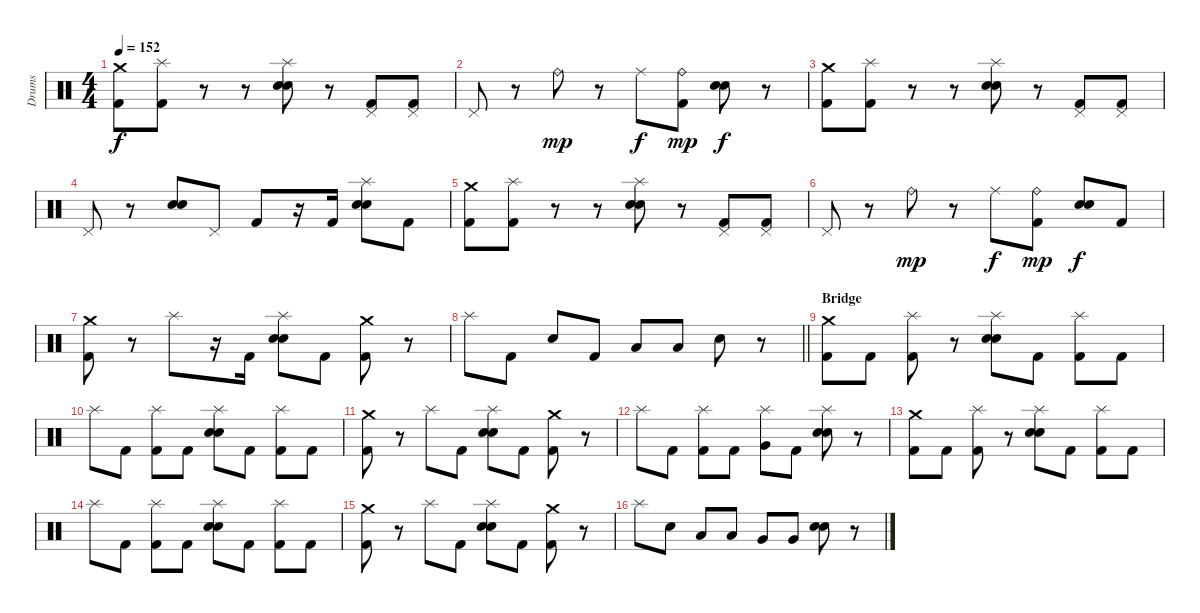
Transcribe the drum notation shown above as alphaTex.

\track ("Drums" "Drums") {instrument percussion}
\staff {score}
\articulation defaults
\ts (4 4)
\tempo 152
\clef neutral
\ks c
("Crash medium (hit)" "Kick (hit) 2").8{dy f} ("Splash (hit)" "Kick (hit) 2").8 r.8 r.8 ("Splash (hit)" "Electric Snare (hit)" "Snare (hit) 2").8 r.8 ("Pedal Hi-Hat (hit)" "Kick (hit) 2").8 ("Pedal Hi-Hat (hit)" "Kick (hit) 2").8 |
"Pedal Hi-Hat (hit)".8 r.8 "Ride (bell)".8{dy mp} r.8 "Ride (middle)".8{dy f} ("Ride (bell)" "Kick (hit) 2").8{dy mp} ("Electric Snare (hit)" "Snare (hit) 2").8{dy f} r.8 |
("Crash medium (hit)" "Kick (hit) 2").8 ("Splash (hit)" "Kick (hit) 2").8 r.8 r.8 ("Splash (hit)" "Electric Snare (hit)" "Snare (hit) 2").8 r.8 ("Pedal Hi-Hat (hit)" "Kick (hit) 2").8 ("Pedal Hi-Hat (hit)" "Kick (hit) 2").8 |
"Pedal Hi-Hat (hit)".8 r.8 ("Electric Snare (hit)" "Snare (hit) 2").8 "Pedal Hi-Hat (hit)".8 "Kick (hit) 2".8 r.16 "Kick (hit) 2".16 ("Splash (hit)" "Electric Snare (hit)" "Snare (hit) 2").8 "Kick (hit) 2".8 |
("Crash medium (hit)" "Kick (hit) 2").8 ("Splash (hit)" "Kick (hit) 2").8 r.8 r.8 ("Splash (hit)" "Electric Snare (hit)" "Snare (hit) 2").8 r.8 ("Pedal Hi-Hat (hit)" "Kick (hit) 2").8 ("Pedal Hi-Hat (hit)" "Kick (hit) 2").8 |
"Pedal Hi-Hat (hit)".8 r.8 "Ride (bell)".8{dy mp} r.8 "Ride (middle)".8{dy f} ("Ride (bell)" "Kick (hit) 2").8{dy mp} ("Electric Snare (hit)" "Snare (hit) 2").8{dy f} "Kick (hit) 2".8 |
("Crash medium (hit)" "Kick (hit) 2").8 r.8 "Splash (hit)".8 r.16 "Kick (hit) 2".16 ("Splash (hit)" "Electric Snare (hit)" "Snare (hit) 2").8 "Kick (hit) 2".8 ("Crash medium (hit)" "Kick (hit) 2").8 r.8 |
\barLineRight lightlight "Splash (hit)".8 "Kick (hit) 2".8 "Electric Snare (hit)".8 "Kick (hit) 2".8 "Low Tom (hit)".8 "Low Tom (hit)".8 "Electric Snare (hit)".8
r.8 |
\section ("" "Bridge")
("Crash medium (hit)" "Kick (hit) 2").8 "Kick (hit) 2".8 ("Splash (hit)" "Kick (hit) 2").8 r.8 ("Splash (hit)" "Electric Snare (hit)" "Snare (hit) 2").8 "Kick (hit) 2".8 ("Splash (hit)" "Kick (hit) 2").8 "Kick (hit) 2".8 |
"Splash (hit)".8 "Kick (hit) 2".8 ("Splash (hit)" "Kick (hit) 2").8 "Kick (hit) 2".8 ("Splash (hit)" "Electric Snare (hit)" "Snare (hit) 2").8 "Kick (hit) 2".8 ("Splash (hit)" "Kick (hit) 2").8 "Kick (hit) 2".8 |
("Crash medium (hit)" "Kick (hit) 2").8 r.8 "Splash (hit)".8 "Kick (hit) 2".8 ("Splash (hit)" "Electric Snare (hit)" "Snare (hit) 2").8 "Kick (hit) 2".8 ("Crash medium (hit)" "Kick (hit) 2").8 r.8 |
"Splash (hit)".8 "Kick (hit) 2".8 ("Splash (hit)" "Kick (hit) 2").8 "Kick (hit) 2".8 ("Splash (hit)" "Very Low Tom (hit)").8 "Kick (hit) 2".8 ("Splash (hit)" "Electric Snare (hit)" "Snare (hit) 2").8 r.8 |
("Crash medium (hit)" "Kick (hit) 2").8 "Kick (hit) 2".8 ("Splash (hit)" "Kick (hit) 2").8 r.8 ("Splash (hit)" "Electric Snare (hit)" "Snare (hit) 2").8 "Kick (hit) 2".8 ("Splash (hit)" "Kick (hit) 2").8 "Kick (hit) 2".8 |
"Splash (hit)".8 "Kick (hit) 2".8 ("Splash (hit)" "Kick (hit) 2").8 "Kick (hit) 2".8 ("Splash (hit)" "Electric Snare (hit)" "Snare (hit) 2").8 "Kick (hit) 2".8 ("Splash (hit)" "Kick (hit) 2").8 "Kick (hit) 2".8 |
("Crash medium (hit)" "Kick (hit) 2").8 r.8 "Splash (hit)".8 "Kick (hit) 2".8 ("Splash (hit)" "Electric Snare (hit)" "Snare (hit) 2").8 "Kick (hit) 2".8 ("Crash medium (hit)" "Kick (hit) 2").8 r.8 |
"Splash (hit)".8 "Electric Snare (hit)".8 "Low Tom (hit)".8 "Low Tom (hit)".8 "Very Low Tom (hit)".8 "Very Low Tom (hit)".8 ("Electric Snare (hit)" "Snare (hit) 2").8 r.8
